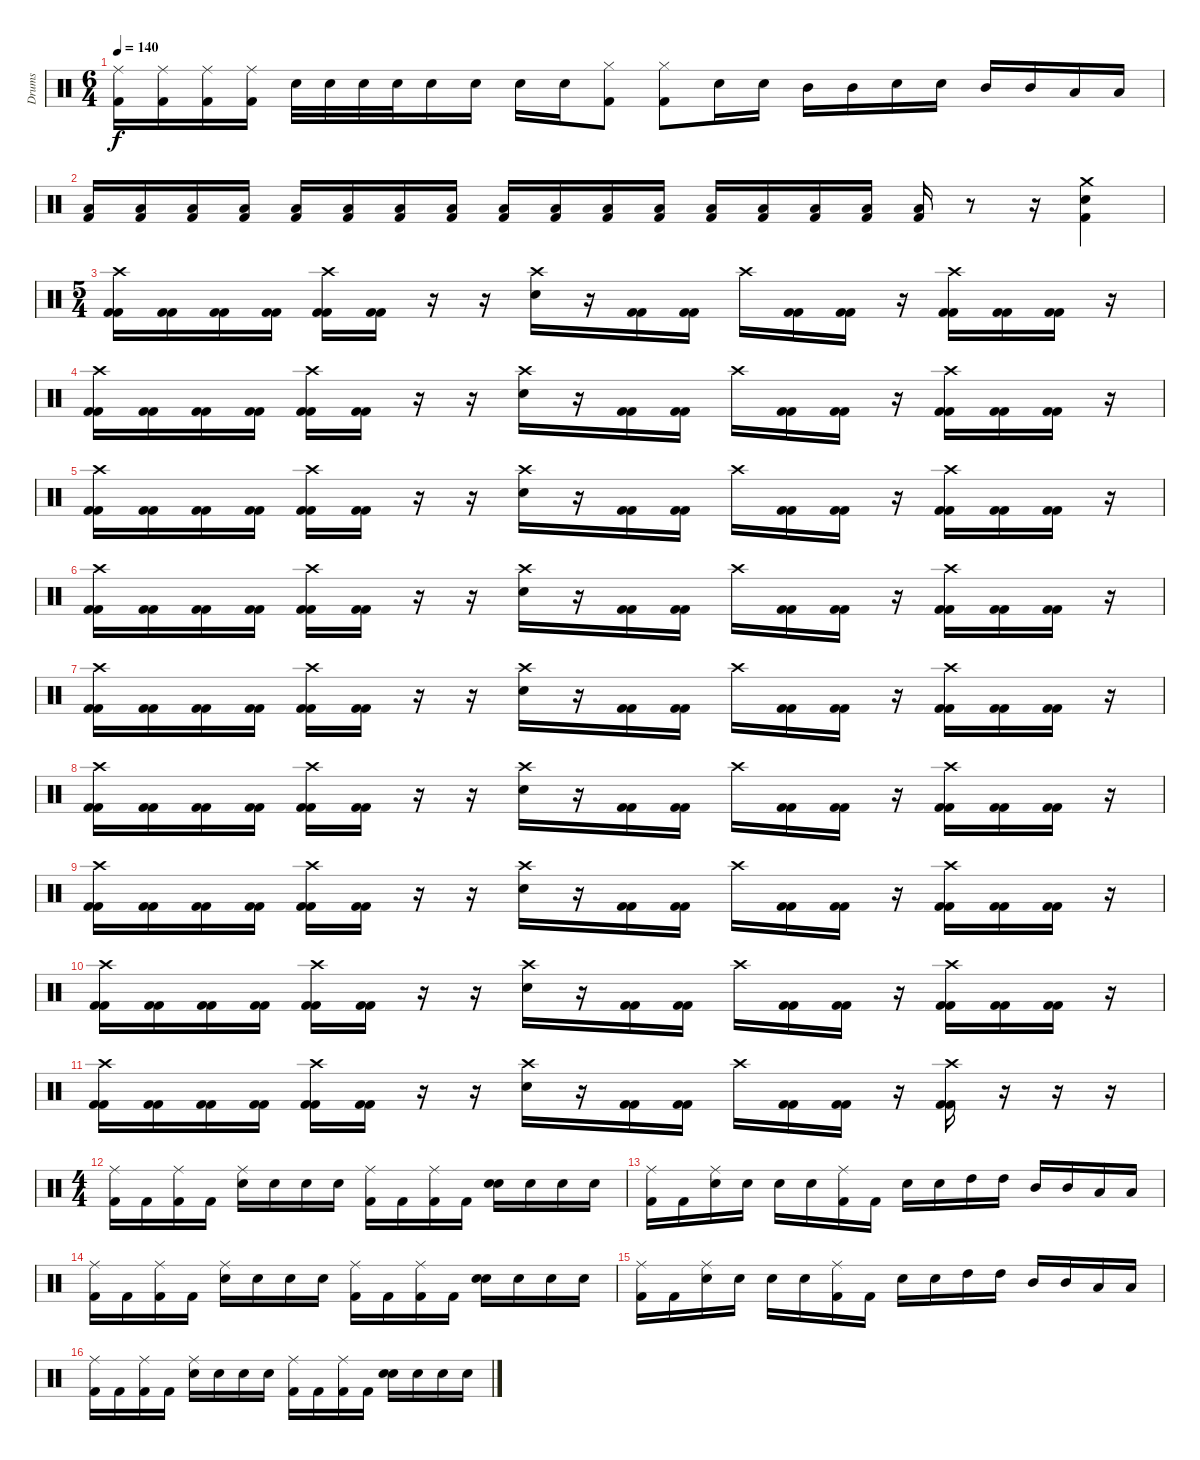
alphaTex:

\track ("Drums" "Drums") {instrument percussion}
\staff {score}
\articulation defaults
\ts (6 4)
\tempo 140
\clef neutral
\ks c
("Ride (middle)" "Kick (hit) 2").16{dy f} ("Ride (middle)" "Kick (hit) 2").16 ("Ride (middle)" "Kick (hit) 2").16 ("Ride (middle)" "Kick (hit) 2").16 "Electric Snare (hit)".32 "Electric Snare (hit)".32 "Electric Snare (hit)".32 "Electric Snare (hit)".32 "Electric Snare (hit)".16 "Electric Snare (hit)".16 "Electric Snare (hit)".16 "Electric Snare (hit)".16 ("Hi-Hat (closed)" "Kick (hit) 2").8 ("Hi-Hat (closed)" "Kick (hit) 2").8 "Electric Snare (hit)".16 "Electric Snare (hit)".16 "Mid Tom (hit)".16 "Mid Tom (hit)".16 "Electric Snare (hit)".16 "Electric Snare (hit)".16 "Mid Tom (hit)".16 "Mid Tom (hit)".16 "Low Tom (hit)".16 "Low Tom (hit)".16 |
("Low Floor Tom (hit)" "Kick (hit) 2").16{volume 7} ("Low Floor Tom (hit)" "Kick (hit) 2").16 ("Low Floor Tom (hit)" "Kick (hit) 2").16 ("Low Floor Tom (hit)" "Kick (hit) 2").16 ("Low Floor Tom (hit)" "Kick (hit) 2").16{volume 9} ("Low Floor Tom (hit)" "Kick (hit) 2").16 ("Low Floor Tom (hit)" "Kick (hit) 2").16 ("Low Floor Tom (hit)" "Kick (hit) 2").16 ("Low Floor Tom (hit)" "Kick (hit) 2").16{volume 12} ("Low Floor Tom (hit)" "Kick (hit) 2").16 ("Low Floor Tom (hit)" "Kick (hit) 2").16 ("Low Floor Tom (hit)" "Kick (hit) 2").16 ("Low Floor Tom (hit)" "Kick (hit) 2").16{volume 16} ("Low Floor Tom (hit)" "Kick (hit) 2").16 ("Low Floor Tom (hit)" "Kick (hit) 2").16 ("Low Floor Tom (hit)" "Kick (hit) 2").16 ("Low Floor Tom (hit)" "Kick (hit) 2").16 r.8 r.16 ("Crash medium (hit)" "Electric Snare (hit)" "Kick (hit) 2").4{volume 7} |
\ts (5 4)
("Kick (hit) 2" "Crash high (hit)" "Kick (hit) 2").16{volume 7} ("Kick (hit) 2" "Kick (hit) 2").16 ("Kick (hit) 2" "Kick (hit) 2").16 ("Kick (hit) 2" "Kick (hit) 2").16 ("Kick (hit) 2" "Crash high (hit)" "Kick (hit) 2").16 ("Kick (hit) 2" "Kick (hit) 2").16 r.16 r.16 ("Crash high (hit)" "Electric Snare (hit)").16 r.16 ("Kick (hit) 2" "Kick (hit) 2").16 ("Kick (hit) 2" "Kick (hit) 2").16 "Crash high (hit)".16 ("Kick (hit) 2" "Kick (hit) 2").16 ("Kick (hit) 2" "Kick (hit) 2").16 r.16 ("Kick (hit) 2" "Crash high (hit)" "Kick (hit) 2").16 ("Kick (hit) 2" "Kick (hit) 2").16 ("Kick (hit) 2" "Kick (hit) 2").16 r.16 |
("Kick (hit) 2" "Crash high (hit)" "Kick (hit) 2").16 ("Kick (hit) 2" "Kick (hit) 2").16 ("Kick (hit) 2" "Kick (hit) 2").16 ("Kick (hit) 2" "Kick (hit) 2").16 ("Kick (hit) 2" "Crash high (hit)" "Kick (hit) 2").16 ("Kick (hit) 2" "Kick (hit) 2").16 r.16 r.16 ("Crash high (hit)" "Electric Snare (hit)").16 r.16 ("Kick (hit) 2" "Kick (hit) 2").16 ("Kick (hit) 2" "Kick (hit) 2").16 "Crash high (hit)".16 ("Kick (hit) 2" "Kick (hit) 2").16 ("Kick (hit) 2" "Kick (hit) 2").16 r.16 ("Kick (hit) 2" "Crash high (hit)" "Kick (hit) 2").16 ("Kick (hit) 2" "Kick (hit) 2").16 ("Kick (hit) 2" "Kick (hit) 2").16 r.16 |
("Kick (hit) 2" "Crash high (hit)" "Kick (hit) 2").16 ("Kick (hit) 2" "Kick (hit) 2").16 ("Kick (hit) 2" "Kick (hit) 2").16 ("Kick (hit) 2" "Kick (hit) 2").16 ("Kick (hit) 2" "Crash high (hit)" "Kick (hit) 2").16 ("Kick (hit) 2" "Kick (hit) 2").16 r.16 r.16 ("Crash high (hit)" "Electric Snare (hit)").16 r.16 ("Kick (hit) 2" "Kick (hit) 2").16 ("Kick (hit) 2" "Kick (hit) 2").16 "Crash high (hit)".16 ("Kick (hit) 2" "Kick (hit) 2").16 ("Kick (hit) 2" "Kick (hit) 2").16 r.16 ("Kick (hit) 2" "Crash high (hit)" "Kick (hit) 2").16 ("Kick (hit) 2" "Kick (hit) 2").16 ("Kick (hit) 2" "Kick (hit) 2").16 r.16 |
("Kick (hit) 2" "Crash high (hit)" "Kick (hit) 2").16 ("Kick (hit) 2" "Kick (hit) 2").16 ("Kick (hit) 2" "Kick (hit) 2").16 ("Kick (hit) 2" "Kick (hit) 2").16 ("Kick (hit) 2" "Crash high (hit)" "Kick (hit) 2").16 ("Kick (hit) 2" "Kick (hit) 2").16 r.16 r.16 ("Crash high (hit)" "Electric Snare (hit)").16 r.16 ("Kick (hit) 2" "Kick (hit) 2").16 ("Kick (hit) 2" "Kick (hit) 2").16 "Crash high (hit)".16 ("Kick (hit) 2" "Kick (hit) 2").16 ("Kick (hit) 2" "Kick (hit) 2").16 r.16 ("Kick (hit) 2" "Crash high (hit)" "Kick (hit) 2").16 ("Kick (hit) 2" "Kick (hit) 2").16 ("Kick (hit) 2" "Kick (hit) 2").16 r.16 |
("Kick (hit) 2" "Crash high (hit)" "Kick (hit) 2").16 ("Kick (hit) 2" "Kick (hit) 2").16 ("Kick (hit) 2" "Kick (hit) 2").16 ("Kick (hit) 2" "Kick (hit) 2").16 ("Kick (hit) 2" "Crash high (hit)" "Kick (hit) 2").16 ("Kick (hit) 2" "Kick (hit) 2").16 r.16 r.16 ("Crash high (hit)" "Electric Snare (hit)").16 r.16 ("Kick (hit) 2" "Kick (hit) 2").16 ("Kick (hit) 2" "Kick (hit) 2").16 "Crash high (hit)".16 ("Kick (hit) 2" "Kick (hit) 2").16 ("Kick (hit) 2" "Kick (hit) 2").16 r.16 ("Kick (hit) 2" "Crash high (hit)" "Kick (hit) 2").16 ("Kick (hit) 2" "Kick (hit) 2").16 ("Kick (hit) 2" "Kick (hit) 2").16 r.16 |
("Kick (hit) 2" "Crash high (hit)" "Kick (hit) 2").16 ("Kick (hit) 2" "Kick (hit) 2").16 ("Kick (hit) 2" "Kick (hit) 2").16 ("Kick (hit) 2" "Kick (hit) 2").16 ("Kick (hit) 2" "Crash high (hit)" "Kick (hit) 2").16 ("Kick (hit) 2" "Kick (hit) 2").16 r.16 r.16 ("Crash high (hit)" "Electric Snare (hit)").16 r.16 ("Kick (hit) 2" "Kick (hit) 2").16 ("Kick (hit) 2" "Kick (hit) 2").16 "Crash high (hit)".16 ("Kick (hit) 2" "Kick (hit) 2").16 ("Kick (hit) 2" "Kick (hit) 2").16 r.16 ("Kick (hit) 2" "Crash high (hit)" "Kick (hit) 2").16 ("Kick (hit) 2" "Kick (hit) 2").16 ("Kick (hit) 2" "Kick (hit) 2").16 r.16 |
("Kick (hit) 2" "Crash high (hit)" "Kick (hit) 2").16 ("Kick (hit) 2" "Kick (hit) 2").16 ("Kick (hit) 2" "Kick (hit) 2").16 ("Kick (hit) 2" "Kick (hit) 2").16 ("Kick (hit) 2" "Crash high (hit)" "Kick (hit) 2").16 ("Kick (hit) 2" "Kick (hit) 2").16 r.16 r.16 ("Crash high (hit)" "Electric Snare (hit)").16 r.16 ("Kick (hit) 2" "Kick (hit) 2").16 ("Kick (hit) 2" "Kick (hit) 2").16 "Crash high (hit)".16 ("Kick (hit) 2" "Kick (hit) 2").16 ("Kick (hit) 2" "Kick (hit) 2").16 r.16 ("Kick (hit) 2" "Crash high (hit)" "Kick (hit) 2").16 ("Kick (hit) 2" "Kick (hit) 2").16 ("Kick (hit) 2" "Kick (hit) 2").16 r.16 |
("Kick (hit) 2" "Crash high (hit)" "Kick (hit) 2").16 ("Kick (hit) 2" "Kick (hit) 2").16 ("Kick (hit) 2" "Kick (hit) 2").16 ("Kick (hit) 2" "Kick (hit) 2").16 ("Kick (hit) 2" "Crash high (hit)" "Kick (hit) 2").16 ("Kick (hit) 2" "Kick (hit) 2").16 r.16 r.16 ("Crash high (hit)" "Electric Snare (hit)").16 r.16 ("Kick (hit) 2" "Kick (hit) 2").16 ("Kick (hit) 2" "Kick (hit) 2").16 "Crash high (hit)".16 ("Kick (hit) 2" "Kick (hit) 2").16 ("Kick (hit) 2" "Kick (hit) 2").16 r.16 ("Kick (hit) 2" "Crash high (hit)" "Kick (hit) 2").16 ("Kick (hit) 2" "Kick (hit) 2").16 ("Kick (hit) 2" "Kick (hit) 2").16 r.16 |
("Kick (hit) 2" "Crash high (hit)" "Kick (hit) 2").16 ("Kick (hit) 2" "Kick (hit) 2").16 ("Kick (hit) 2" "Kick (hit) 2").16 ("Kick (hit) 2" "Kick (hit) 2").16 ("Kick (hit) 2" "Crash high (hit)" "Kick (hit) 2").16 ("Kick (hit) 2" "Kick (hit) 2").16 r.16 r.16 ("Crash high (hit)" "Electric Snare (hit)").16 r.16 ("Kick (hit) 2" "Kick (hit) 2").16 ("Kick (hit) 2" "Kick (hit) 2").16 "Crash high (hit)".16 ("Kick (hit) 2" "Kick (hit) 2").16 ("Kick (hit) 2" "Kick (hit) 2").16 r.16 ("Kick (hit) 2" "Crash high (hit)" "Kick (hit) 2").16 r.16 r.16 r.16 |
\ts (4 4)
("Ride (middle)" "Kick (hit) 2").16 "Kick (hit) 2".16 ("Ride (middle)" "Kick (hit) 2").16 "Kick (hit) 2".16 ("Ride (middle)" "Electric Snare (hit)").16 "Electric Snare (hit)".16 "Electric Snare (hit)".16 "Electric Snare (hit)".16 ("Ride (middle)" "Kick (hit) 2").16 "Kick (hit) 2".16 ("Ride (middle)" "Kick (hit) 2").16 "Kick (hit) 2".16 ("Snare (hit)" "Electric Snare (hit)").16 "Electric Snare (hit)".16 "Electric Snare (hit)".16 "Electric Snare (hit)".16 |
("Ride (middle)" "Kick (hit) 2").16 "Kick (hit) 2".16 ("Ride (middle)" "Electric Snare (hit)").16 "Electric Snare (hit)".16 "Electric Snare (hit)".16 "Electric Snare (hit)".16 ("Ride (middle)" "Kick (hit) 2").16 "Kick (hit) 2".16 "Electric Snare (hit)".16 "Electric Snare (hit)".16 "High Tom (hit)".16 "High Tom (hit)".16 "Mid Tom (hit)".16 "Mid Tom (hit)".16 "Low Tom (hit)".16 "Low Tom (hit)".16 |
("Ride (middle)" "Kick (hit) 2").16 "Kick (hit) 2".16 ("Ride (middle)" "Kick (hit) 2").16 "Kick (hit) 2".16 ("Ride (middle)" "Electric Snare (hit)").16 "Electric Snare (hit)".16 "Electric Snare (hit)".16 "Electric Snare (hit)".16 ("Ride (middle)" "Kick (hit) 2").16 "Kick (hit) 2".16 ("Ride (middle)" "Kick (hit) 2").16 "Kick (hit) 2".16 ("Snare (hit)" "Electric Snare (hit)").16 "Electric Snare (hit)".16 "Electric Snare (hit)".16 "Electric Snare (hit)".16 |
("Ride (middle)" "Kick (hit) 2").16 "Kick (hit) 2".16 ("Ride (middle)" "Electric Snare (hit)").16 "Electric Snare (hit)".16 "Electric Snare (hit)".16 "Electric Snare (hit)".16 ("Ride (middle)" "Kick (hit) 2").16 "Kick (hit) 2".16 "Electric Snare (hit)".16 "Electric Snare (hit)".16 "High Tom (hit)".16 "High Tom (hit)".16 "Mid Tom (hit)".16 "Mid Tom (hit)".16 "Low Tom (hit)".16 "Low Tom (hit)".16 |
("Ride (middle)" "Kick (hit) 2").16 "Kick (hit) 2".16 ("Ride (middle)" "Kick (hit) 2").16 "Kick (hit) 2".16 ("Ride (middle)" "Electric Snare (hit)").16 "Electric Snare (hit)".16 "Electric Snare (hit)".16 "Electric Snare (hit)".16 ("Ride (middle)" "Kick (hit) 2").16 "Kick (hit) 2".16 ("Ride (middle)" "Kick (hit) 2").16 "Kick (hit) 2".16 ("Snare (hit)" "Electric Snare (hit)").16 "Electric Snare (hit)".16 "Electric Snare (hit)".16 "Electric Snare (hit)".16
